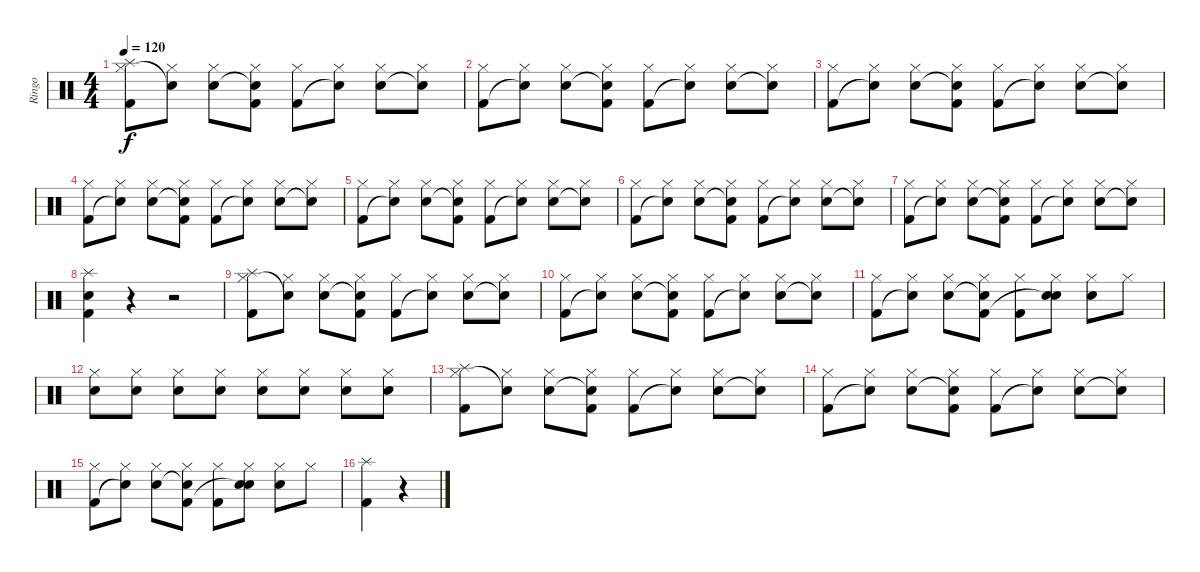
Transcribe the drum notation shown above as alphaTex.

\track ("Ringo" "Ringo") {instrument percussion}
\staff {score}
\articulation defaults
\ts (4 4)
\tempo 120
\clef neutral
\ks c
("Splash (hit)" "Hi-Hat (closed)" "Kick (hit) 2").8{dy f} ("Hi-Hat (closed)" "Snare (hit)"{t}).8 ("Hi-Hat (closed)" "Snare (hit) 2").8 ("Hi-Hat (closed)" "Snare (hit)"{t} "Kick (hit) 2").8 ("Hi-Hat (closed)" "Kick (hit) 2").8 ("Hi-Hat (closed)" "Snare (hit)"{t}).8 ("Hi-Hat (closed)" "Snare (hit) 2").8 ("Hi-Hat (closed)" "Snare (hit)"{t}).8 |
("Hi-Hat (closed)" "Kick (hit) 2").8 ("Hi-Hat (closed)" "Snare (hit)"{t}).8 ("Hi-Hat (closed)" "Snare (hit) 2").8 ("Hi-Hat (closed)" "Snare (hit)"{t} "Kick (hit) 2").8 ("Hi-Hat (closed)" "Kick (hit) 2").8 ("Hi-Hat (closed)" "Snare (hit)"{t}).8 ("Hi-Hat (closed)" "Snare (hit) 2").8 ("Hi-Hat (closed)" "Snare (hit)"{t}).8 |
("Hi-Hat (closed)" "Kick (hit) 2").8 ("Hi-Hat (closed)" "Snare (hit)"{t}).8 ("Hi-Hat (closed)" "Snare (hit) 2").8 ("Hi-Hat (closed)" "Snare (hit)"{t} "Kick (hit) 2").8 ("Hi-Hat (closed)" "Kick (hit) 2").8 ("Hi-Hat (closed)" "Snare (hit)"{t}).8 ("Hi-Hat (closed)" "Snare (hit) 2").8 ("Hi-Hat (closed)" "Snare (hit)"{t}).8 |
("Hi-Hat (closed)" "Kick (hit) 2").8 ("Hi-Hat (closed)" "Snare (hit)"{t}).8 ("Hi-Hat (closed)" "Snare (hit) 2").8 ("Hi-Hat (closed)" "Snare (hit)"{t} "Kick (hit) 2").8 ("Hi-Hat (closed)" "Kick (hit) 2").8 ("Hi-Hat (closed)" "Snare (hit)"{t}).8 ("Hi-Hat (closed)" "Snare (hit) 2").8 ("Hi-Hat (closed)" "Snare (hit)"{t}).8 |
("Hi-Hat (closed)" "Kick (hit) 2").8 ("Hi-Hat (closed)" "Snare (hit)"{t}).8 ("Hi-Hat (closed)" "Snare (hit) 2").8 ("Hi-Hat (closed)" "Snare (hit)"{t} "Kick (hit) 2").8 ("Hi-Hat (closed)" "Kick (hit) 2").8 ("Hi-Hat (closed)" "Snare (hit)"{t}).8 ("Hi-Hat (closed)" "Snare (hit) 2").8 ("Hi-Hat (closed)" "Snare (hit)"{t}).8 |
("Hi-Hat (closed)" "Kick (hit) 2").8 ("Hi-Hat (closed)" "Snare (hit)"{t}).8 ("Hi-Hat (closed)" "Snare (hit) 2").8 ("Hi-Hat (closed)" "Snare (hit)"{t} "Kick (hit) 2").8 ("Hi-Hat (closed)" "Kick (hit) 2").8 ("Hi-Hat (closed)" "Snare (hit)"{t}).8 ("Hi-Hat (closed)" "Snare (hit) 2").8 ("Hi-Hat (closed)" "Snare (hit)"{t}).8 |
("Hi-Hat (closed)" "Kick (hit) 2").8 ("Hi-Hat (closed)" "Snare (hit)"{t}).8 ("Hi-Hat (closed)" "Snare (hit) 2").8 ("Hi-Hat (closed)" "Snare (hit)"{t} "Kick (hit) 2").8 ("Hi-Hat (closed)" "Kick (hit) 2").8 ("Hi-Hat (closed)" "Snare (hit)"{t}).8 ("Hi-Hat (closed)" "Snare (hit) 2").8 ("Hi-Hat (closed)" "Snare (hit)"{t}).8 |
("Splash (hit)" "Snare (hit) 2" "Kick (hit) 2").4 r.4 r.2 |
("Splash (hit)" "Hi-Hat (closed)" "Kick (hit) 2").8 ("Hi-Hat (closed)" "Snare (hit)"{t}).8 ("Hi-Hat (closed)" "Snare (hit) 2").8 ("Hi-Hat (closed)" "Snare (hit)"{t} "Kick (hit) 2").8 ("Hi-Hat (closed)" "Kick (hit) 2").8 ("Hi-Hat (closed)" "Snare (hit)"{t}).8 ("Hi-Hat (closed)" "Snare (hit) 2").8 ("Hi-Hat (closed)" "Snare (hit)"{t}).8 |
("Hi-Hat (closed)" "Kick (hit) 2").8 ("Hi-Hat (closed)" "Snare (hit)"{t}).8 ("Hi-Hat (closed)" "Snare (hit) 2").8 ("Hi-Hat (closed)" "Snare (hit)"{t} "Kick (hit) 2").8 ("Hi-Hat (closed)" "Kick (hit) 2").8 ("Hi-Hat (closed)" "Snare (hit)"{t}).8 ("Hi-Hat (closed)" "Snare (hit) 2").8 ("Hi-Hat (closed)" "Snare (hit)"{t}).8 |
("Hi-Hat (closed)" "Kick (hit) 2").8 ("Hi-Hat (closed)" "Snare (hit)"{t}).8 ("Hi-Hat (closed)" "Snare (hit) 2").8 ("Hi-Hat (closed)" "Snare (hit)"{t} "Kick (hit) 2").8 ("Hi-Hat (closed)" "Kick (hit) 2").8 ("Hi-Hat (closed)" "Snare (hit) 2" "Snare (hit)"{t}).8 ("Hi-Hat (closed)" "Snare (hit) 2").8 "Hi-Hat (closed)".8 |
("Hi-Hat (closed)" "Snare (hit) 2").8 ("Hi-Hat (closed)" "Snare (hit) 2").8 ("Hi-Hat (closed)" "Snare (hit) 2").8 ("Hi-Hat (closed)" "Snare (hit) 2").8 ("Hi-Hat (closed)" "Snare (hit) 2").8 ("Hi-Hat (closed)" "Snare (hit) 2").8 ("Hi-Hat (closed)" "Snare (hit) 2").8 ("Hi-Hat (closed)" "Snare (hit) 2").8 |
("Splash (hit)" "Hi-Hat (closed)" "Kick (hit) 2").8 ("Hi-Hat (closed)" "Snare (hit)"{t}).8 ("Hi-Hat (closed)" "Snare (hit) 2").8 ("Hi-Hat (closed)" "Snare (hit)"{t} "Kick (hit) 2").8 ("Hi-Hat (closed)" "Kick (hit) 2").8 ("Hi-Hat (closed)" "Snare (hit)"{t}).8 ("Hi-Hat (closed)" "Snare (hit) 2").8 ("Hi-Hat (closed)" "Snare (hit)"{t}).8 |
("Hi-Hat (closed)" "Kick (hit) 2").8 ("Hi-Hat (closed)" "Snare (hit)"{t}).8 ("Hi-Hat (closed)" "Snare (hit) 2").8 ("Hi-Hat (closed)" "Snare (hit)"{t} "Kick (hit) 2").8 ("Hi-Hat (closed)" "Kick (hit) 2").8 ("Hi-Hat (closed)" "Snare (hit)"{t}).8 ("Hi-Hat (closed)" "Snare (hit) 2").8 ("Hi-Hat (closed)" "Snare (hit)"{t}).8 |
("Hi-Hat (closed)" "Kick (hit) 2").8 ("Hi-Hat (closed)" "Snare (hit)"{t}).8 ("Hi-Hat (closed)" "Snare (hit) 2").8 ("Hi-Hat (closed)" "Snare (hit)"{t} "Kick (hit) 2").8 ("Hi-Hat (closed)" "Kick (hit) 2").8 ("Hi-Hat (closed)" "Snare (hit) 2" "Snare (hit)"{t}).8 ("Hi-Hat (closed)" "Snare (hit) 2").8 "Hi-Hat (closed)".8 |
("Splash (hit)" "Kick (hit) 2").4 r.4
